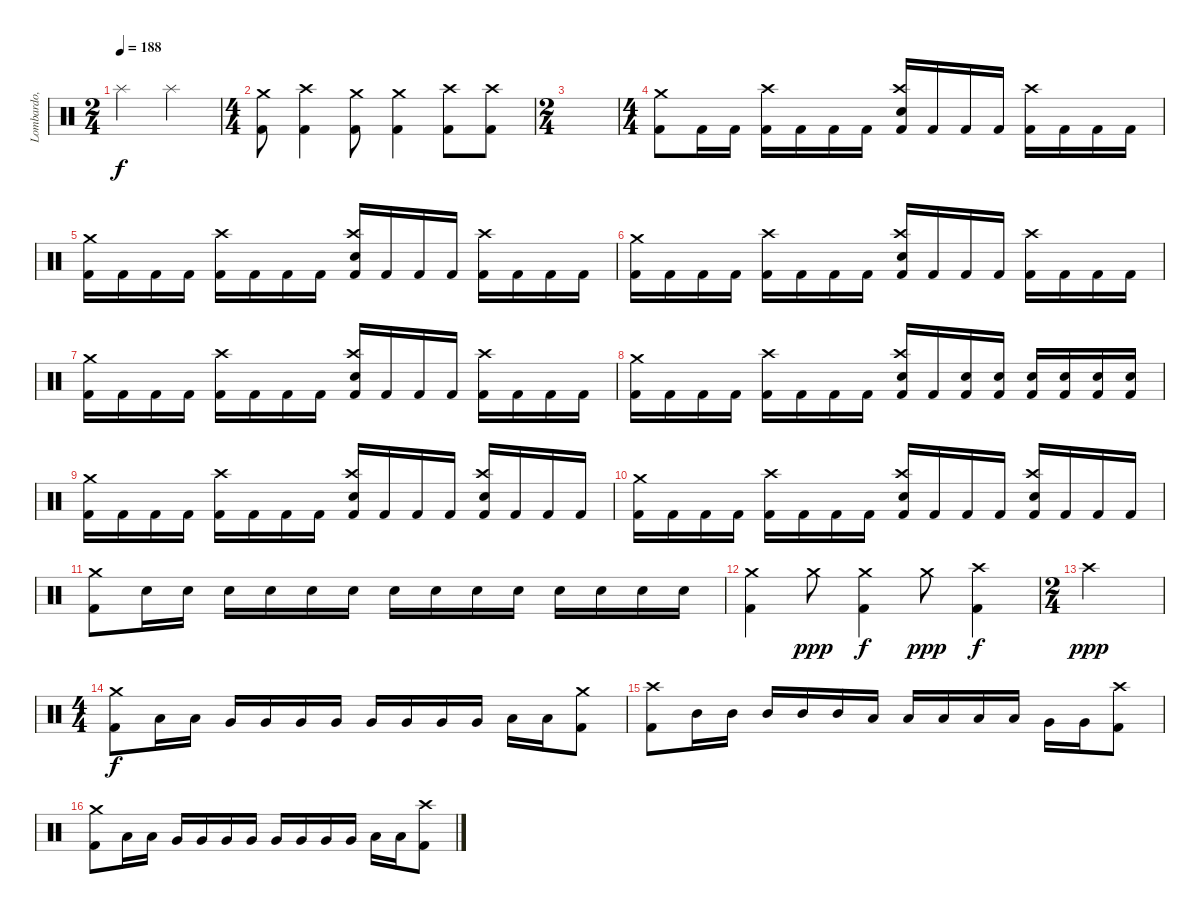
\track ("Lombardo, Dave" "Lombardo, ") {instrument percussion}
\staff {score}
\articulation defaults
\ts (2 4)
\tempo 188
\clef neutral
\ks c "Splash (hit)".4{dy f} "Splash (hit)".4
|
\ts (4 4)
("Crash medium (hit)" "Kick (hit) 2").8 ("Crash high (hit)" "Kick (hit) 2").4 ("Crash medium (hit)" "Kick (hit) 2").8 ("Crash medium (hit)" "Kick (hit) 2").4 ("Crash high (hit)" "Kick (hit) 2").8 ("Crash high (hit)" "Kick (hit) 2").8 |
\ts (2 4)
|
\ts (4 4)
("Crash medium (hit)" "Kick (hit) 2").8 "Kick (hit) 2".16 "Kick (hit) 2".16 ("Crash high (hit)" "Kick (hit) 2").16 "Kick (hit) 2".16 "Kick (hit) 2".16 "Kick (hit) 2".16 ("Crash high (hit)" "Electric Snare (hit)" "Kick (hit) 2").16 "Kick (hit) 2".16 "Kick (hit) 2".16 "Kick (hit) 2".16 ("Crash high (hit)" "Kick (hit) 2").16 "Kick (hit) 2".16 "Kick (hit) 2".16 "Kick (hit) 2".16 |
("Crash medium (hit)" "Kick (hit) 2").16 "Kick (hit) 2".16 "Kick (hit) 2".16 "Kick (hit) 2".16 ("Crash high (hit)" "Kick (hit) 2").16 "Kick (hit) 2".16 "Kick (hit) 2".16 "Kick (hit) 2".16 ("Crash high (hit)" "Electric Snare (hit)" "Kick (hit) 2").16 "Kick (hit) 2".16 "Kick (hit) 2".16 "Kick (hit) 2".16 ("Crash high (hit)" "Kick (hit) 2").16 "Kick (hit) 2".16 "Kick (hit) 2".16 "Kick (hit) 2".16 |
("Crash medium (hit)" "Kick (hit) 2").16 "Kick (hit) 2".16 "Kick (hit) 2".16 "Kick (hit) 2".16 ("Crash high (hit)" "Kick (hit) 2").16 "Kick (hit) 2".16 "Kick (hit) 2".16 "Kick (hit) 2".16 ("Crash high (hit)" "Electric Snare (hit)" "Kick (hit) 2").16 "Kick (hit) 2".16 "Kick (hit) 2".16 "Kick (hit) 2".16 ("Crash high (hit)" "Kick (hit) 2").16 "Kick (hit) 2".16 "Kick (hit) 2".16 "Kick (hit) 2".16 |
("Crash medium (hit)" "Kick (hit) 2").16 "Kick (hit) 2".16 "Kick (hit) 2".16 "Kick (hit) 2".16 ("Crash high (hit)" "Kick (hit) 2").16 "Kick (hit) 2".16 "Kick (hit) 2".16 "Kick (hit) 2".16 ("Crash high (hit)" "Electric Snare (hit)" "Kick (hit) 2").16 "Kick (hit) 2".16 "Kick (hit) 2".16 "Kick (hit) 2".16 ("Crash high (hit)" "Kick (hit) 2").16 "Kick (hit) 2".16 "Kick (hit) 2".16 "Kick (hit) 2".16 |
("Crash medium (hit)" "Kick (hit) 2").16 "Kick (hit) 2".16 "Kick (hit) 2".16 "Kick (hit) 2".16 ("Crash high (hit)" "Kick (hit) 2").16 "Kick (hit) 2".16 "Kick (hit) 2".16 "Kick (hit) 2".16 ("Crash high (hit)" "Electric Snare (hit)" "Kick (hit) 2").16 "Kick (hit) 2".16 ("Electric Snare (hit)" "Kick (hit) 2").16 ("Electric Snare (hit)" "Kick (hit) 2").16 ("Electric Snare (hit)" "Kick (hit) 2").16 ("Electric Snare (hit)" "Kick (hit) 2").16 ("Electric Snare (hit)" "Kick (hit) 2").16 ("Electric Snare (hit)" "Kick (hit) 2").16 |
("Crash medium (hit)" "Kick (hit) 2").16 "Kick (hit) 2".16 "Kick (hit) 2".16 "Kick (hit) 2".16 ("Crash high (hit)" "Kick (hit) 2").16 "Kick (hit) 2".16 "Kick (hit) 2".16 "Kick (hit) 2".16 ("Crash high (hit)" "Electric Snare (hit)" "Kick (hit) 2").16 "Kick (hit) 2".16 "Kick (hit) 2".16 "Kick (hit) 2".16 ("Crash high (hit)" "Electric Snare (hit)" "Kick (hit) 2").16 "Kick (hit) 2".16 "Kick (hit) 2".16 "Kick (hit) 2".16 |
("Crash medium (hit)" "Kick (hit) 2").16 "Kick (hit) 2".16 "Kick (hit) 2".16 "Kick (hit) 2".16 ("Crash high (hit)" "Kick (hit) 2").16 "Kick (hit) 2".16 "Kick (hit) 2".16 "Kick (hit) 2".16 ("Crash high (hit)" "Electric Snare (hit)" "Kick (hit) 2").16 "Kick (hit) 2".16 "Kick (hit) 2".16 "Kick (hit) 2".16 ("Crash high (hit)" "Electric Snare (hit)" "Kick (hit) 2").16 "Kick (hit) 2".16 "Kick (hit) 2".16 "Kick (hit) 2".16 |
("Crash medium (hit)" "Kick (hit) 2").8 "Electric Snare (hit)".16 "Electric Snare (hit)".16 "Electric Snare (hit)".16 "Electric Snare (hit)".16 "Electric Snare (hit)".16 "Electric Snare (hit)".16 "Electric Snare (hit)".16 "Electric Snare (hit)".16 "Electric Snare (hit)".16 "Electric Snare (hit)".16 "Electric Snare (hit)".16 "Electric Snare (hit)".16 "Electric Snare (hit)".16 "Electric Snare (hit)".16 |
("Crash medium (hit)" "Kick (hit) 2").4 "Crash medium (hit)".8{dy ppp} ("Crash medium (hit)" "Kick (hit) 2").4{dy f} "Crash medium (hit)".8{dy ppp} ("Crash high (hit)" "Kick (hit) 2").4{dy f} |
\ts (2 4)
"Crash high (hit)".2{dy ppp} |
\ts (4 4)
("Crash medium (hit)" "Kick (hit) 2").8{dy f} "Low Tom (hit)".16 "Low Tom (hit)".16 "Very Low Tom (hit)".16 "Very Low Tom (hit)".16 "Very Low Tom (hit)".16 "Very Low Tom (hit)".16 "Very Low Tom (hit)".16 "Very Low Tom (hit)".16 "Very Low Tom (hit)".16 "Very Low Tom (hit)".16 "Low Floor Tom (hit)".16 "Low Floor Tom (hit)".16 ("Crash medium (hit)" "Kick (hit) 2").8 |
("Crash high (hit)" "Kick (hit) 2").8 "Mid Tom (hit)".16 "Mid Tom (hit)".16 "Mid Tom (hit)".16 "Mid Tom (hit)".16 "Mid Tom (hit)".16 "Low Tom (hit)".16 "Low Tom (hit)".16 "Low Tom (hit)".16 "Low Tom (hit)".16 "Low Tom (hit)".16 "Very Low Tom (hit)".16 "Very Low Tom (hit)".16 ("Crash high (hit)" "Kick (hit) 2").8 |
("Crash medium (hit)" "Kick (hit) 2").8 "Low Tom (hit)".16 "Low Tom (hit)".16 "Very Low Tom (hit)".16 "Very Low Tom (hit)".16 "Very Low Tom (hit)".16 "Very Low Tom (hit)".16 "Very Low Tom (hit)".16 "Very Low Tom (hit)".16 "Very Low Tom (hit)".16 "Very Low Tom (hit)".16 "Low Floor Tom (hit)".16 "Low Floor Tom (hit)".16 ("Crash high (hit)" "Kick (hit) 2").8
